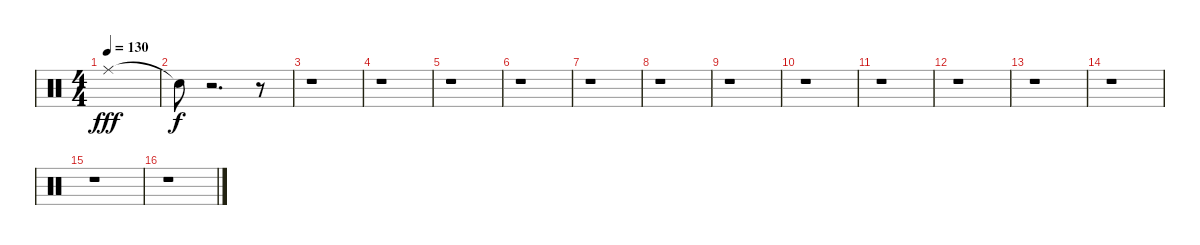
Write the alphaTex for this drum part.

\track "" {instrument percussion}
\staff {score}
\articulation defaults
\ts (4 4)
\tempo 130
\clef neutral
\ks c "Ride (middle)".1{dy fff}
|
"Snare (hit)"{t}.8{dy f} r.2{d} r.8 |
r.1 |
r.1 |
r.1 |
r.1 |
r.1 |
r.1 |
r.1 |
r.1 |
r.1 |
r.1 |
r.1 |
r.1 |
r.1 |
r.1
